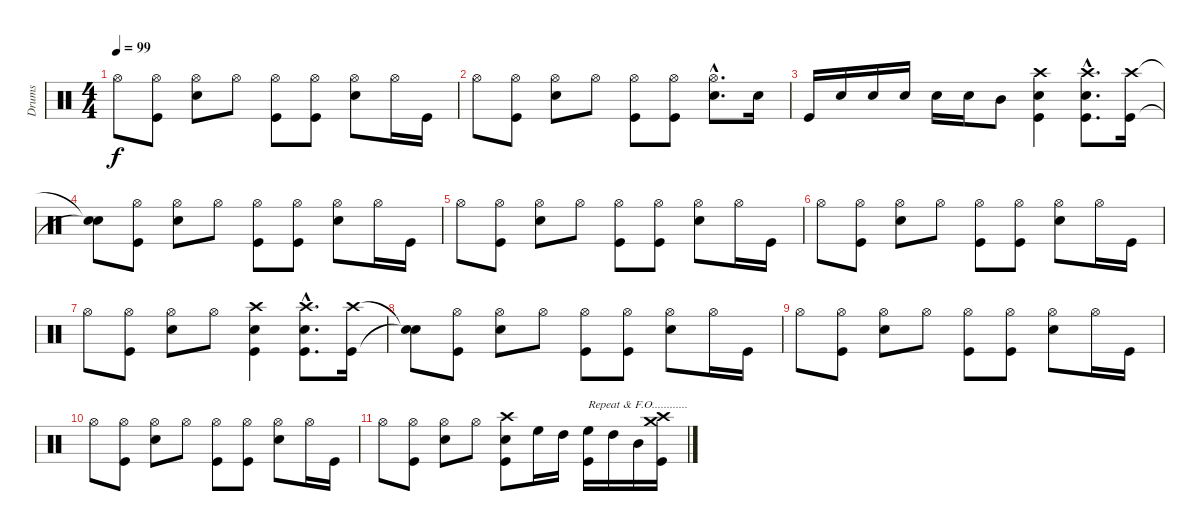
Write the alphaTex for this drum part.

\track ("Drums" "Drums") {instrument percussion}
\staff {score}
\articulation defaults
\ts (4 4)
\tempo 99
\clef neutral
\ks c "Hi-Hat (open)".8{dy f}
("Hi-Hat (open)" "Kick (hit)").8 ("Hi-Hat (open)" "Electric Snare (hit)").8 "Hi-Hat (open)".8 ("Hi-Hat (open)" "Kick (hit)").8 ("Hi-Hat (open)" "Kick (hit)").8 ("Hi-Hat (open)" "Electric Snare (hit)").8 "Hi-Hat (open)".16 "Kick (hit)".16 |
"Hi-Hat (open)".8 ("Hi-Hat (open)" "Kick (hit)").8 ("Hi-Hat (open)" "Electric Snare (hit)").8 "Hi-Hat (open)".8 ("Hi-Hat (open)" "Kick (hit)").8 ("Hi-Hat (open)" "Kick (hit)").8 ("Hi-Hat (open)"{hac} "Electric Snare (hit)"{hac}).8{d} "Electric Snare (hit)".16 |
"Kick (hit)".16 "Electric Snare (hit)".16 "Electric Snare (hit)".16 "Electric Snare (hit)".16 "Electric Snare (hit)".16 "Electric Snare (hit)".16 "Mid Tom (hit)".8 ("Crash high (hit)" "Electric Snare (hit)" "Kick (hit)").4 ("Crash high (hit)"{hac} "Electric Snare (hit)"{hac} "Kick (hit)"{hac}).8{d} ("Crash high (hit)" "Kick (hit)").16 |
("Snare (hit)"{t} "Snare (hit)"{t}).8 ("Hi-Hat (open)" "Kick (hit)").8 ("Hi-Hat (open)" "Electric Snare (hit)").8 "Hi-Hat (open)".8 ("Hi-Hat (open)" "Kick (hit)").8 ("Hi-Hat (open)" "Kick (hit)").8 ("Hi-Hat (open)" "Electric Snare (hit)").8 "Hi-Hat (open)".16 "Kick (hit)".16 |
"Hi-Hat (open)".8 ("Hi-Hat (open)" "Kick (hit)").8 ("Hi-Hat (open)" "Electric Snare (hit)").8 "Hi-Hat (open)".8 ("Hi-Hat (open)" "Kick (hit)").8 ("Hi-Hat (open)" "Kick (hit)").8 ("Hi-Hat (open)" "Electric Snare (hit)").8 "Hi-Hat (open)".16 "Kick (hit)".16 |
"Hi-Hat (open)".8 ("Hi-Hat (open)" "Kick (hit)").8 ("Hi-Hat (open)" "Electric Snare (hit)").8 "Hi-Hat (open)".8 ("Hi-Hat (open)" "Kick (hit)").8 ("Hi-Hat (open)" "Kick (hit)").8 ("Hi-Hat (open)" "Electric Snare (hit)").8 "Hi-Hat (open)".16 "Kick (hit)".16 |
"Hi-Hat (open)".8 ("Hi-Hat (open)" "Kick (hit)").8 ("Hi-Hat (open)" "Electric Snare (hit)").8 "Hi-Hat (open)".8 ("Crash high (hit)" "Electric Snare (hit)" "Kick (hit)").4 ("Crash high (hit)"{hac} "Electric Snare (hit)"{hac} "Kick (hit)"{hac}).8{d} ("Crash high (hit)" "Kick (hit)").16 |
("Snare (hit)"{t} "Snare (hit)"{t}).8 ("Hi-Hat (open)" "Kick (hit)").8 ("Hi-Hat (open)" "Electric Snare (hit)").8 "Hi-Hat (open)".8 ("Hi-Hat (open)" "Kick (hit)").8 ("Hi-Hat (open)" "Kick (hit)").8 ("Hi-Hat (open)" "Electric Snare (hit)").8 "Hi-Hat (open)".16 "Kick (hit)".16 |
"Hi-Hat (open)".8 ("Hi-Hat (open)" "Kick (hit)").8 ("Hi-Hat (open)" "Electric Snare (hit)").8 "Hi-Hat (open)".8 ("Hi-Hat (open)" "Kick (hit)").8 ("Hi-Hat (open)" "Kick (hit)").8 ("Hi-Hat (open)" "Electric Snare (hit)").8 "Hi-Hat (open)".16 "Kick (hit)".16 |
"Hi-Hat (open)".8 ("Hi-Hat (open)" "Kick (hit)").8 ("Hi-Hat (open)" "Electric Snare (hit)").8 "Hi-Hat (open)".8 ("Hi-Hat (open)" "Kick (hit)").8 ("Hi-Hat (open)" "Kick (hit)").8 ("Hi-Hat (open)" "Electric Snare (hit)").8 "Hi-Hat (open)".16 "Kick (hit)".16 |
"Hi-Hat (open)".8 ("Hi-Hat (open)" "Kick (hit)").8 ("Hi-Hat (open)" "Electric Snare (hit)").8 "Hi-Hat (open)".8 ("Crash high (hit)" "Electric Snare (hit)" "Kick (hit)").8 "High Floor Tom (hit)".16 "High Tom (hit)".16 ("High Floor Tom (hit)" "Kick (hit)").16{txt "Repeat & F.O............"} "High Tom (hit)".16 "Mid Tom (hit)".16 ("Crash high (hit)" "Crash medium (hit)" "Kick (hit)").16
